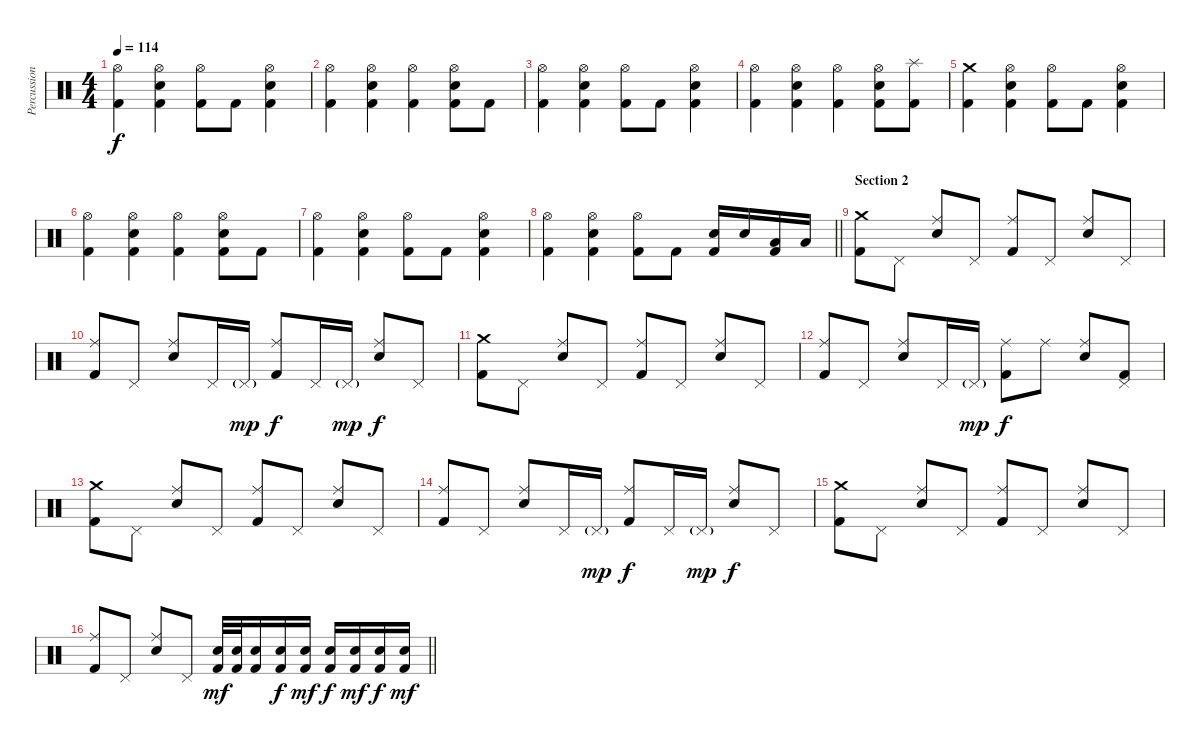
\track ("Percussion" "Percussion") {instrument percussion}
\staff {score}
\articulation defaults
\ts (4 4)
\tempo 114
\clef neutral
\ks c
("Hi-Hat (open)" "Kick (hit) 2").4{dy f} ("Snare (hit) 2" "Hi-Hat (open)" "Kick (hit) 2").4 ("Hi-Hat (open)" "Kick (hit) 2").8 "Kick (hit) 2".8 ("Snare (hit) 2" "Hi-Hat (open)" "Kick (hit) 2").4 |
("Hi-Hat (open)" "Kick (hit) 2").4 ("Snare (hit) 2" "Hi-Hat (open)" "Kick (hit) 2").4 ("Hi-Hat (open)" "Kick (hit) 2").4 ("Snare (hit) 2" "Hi-Hat (open)" "Kick (hit) 2").8 "Kick (hit) 2".8 |
("Hi-Hat (open)" "Kick (hit) 2").4 ("Snare (hit) 2" "Hi-Hat (open)" "Kick (hit) 2").4 ("Hi-Hat (open)" "Kick (hit) 2").8 "Kick (hit) 2".8 ("Snare (hit) 2" "Hi-Hat (open)" "Kick (hit) 2").4 |
("Hi-Hat (open)" "Kick (hit) 2").4 ("Snare (hit) 2" "Hi-Hat (open)" "Kick (hit) 2").4 ("Hi-Hat (open)" "Kick (hit) 2").4 ("Snare (hit) 2" "Hi-Hat (open)" "Kick (hit) 2").8 ("Splash (hit)" "Kick (hit) 2").8 |
("Crash medium (hit)" "Kick (hit) 2").4 ("Snare (hit) 2" "Hi-Hat (open)" "Kick (hit) 2").4 ("Hi-Hat (open)" "Kick (hit) 2").8 "Kick (hit) 2".8 ("Snare (hit) 2" "Hi-Hat (open)" "Kick (hit) 2").4 |
("Hi-Hat (open)" "Kick (hit) 2").4 ("Snare (hit) 2" "Hi-Hat (open)" "Kick (hit) 2").4 ("Hi-Hat (open)" "Kick (hit) 2").4 ("Snare (hit) 2" "Hi-Hat (open)" "Kick (hit) 2").8 "Kick (hit) 2".8 |
("Hi-Hat (open)" "Kick (hit) 2").4 ("Snare (hit) 2" "Hi-Hat (open)" "Kick (hit) 2").4 ("Hi-Hat (open)" "Kick (hit) 2").8 "Kick (hit) 2".8 ("Snare (hit) 2" "Hi-Hat (open)" "Kick (hit) 2").4 |
\barLineRight lightlight
("Hi-Hat (open)" "Kick (hit) 2").4 ("Snare (hit) 2" "Hi-Hat (open)" "Kick (hit) 2").4 ("Hi-Hat (open)" "Kick (hit) 2").8 "Kick (hit) 2".8 ("Snare (hit) 2" "Kick (hit) 2").16 "Snare (hit) 2".16 ("Low Tom (hit)" "Kick (hit) 2").16 "Low Tom (hit)".16 |
\section ("" "Section 2")
("Crash medium (hit)" "Kick (hit) 2").8 "Pedal Hi-Hat (hit)".8 ("Snare (hit) 2" "Ride (middle)").8 "Pedal Hi-Hat (hit)".8 ("Ride (middle)" "Kick (hit) 2").8 "Pedal Hi-Hat (hit)".8 ("Snare (hit) 2" "Ride (middle)").8 "Pedal Hi-Hat (hit)".8 |
("Ride (middle)" "Kick (hit) 2").8 "Pedal Hi-Hat (hit)".8 ("Snare (hit) 2" "Ride (middle)").8 "Pedal Hi-Hat (hit)".16 "Pedal Hi-Hat (hit)"{g}.16{dy mp} ("Ride (middle)" "Kick (hit) 2").8{dy f} "Pedal Hi-Hat (hit)".16 "Pedal Hi-Hat (hit)"{g}.16{dy mp} ("Snare (hit) 2" "Ride (middle)").8{dy f} "Pedal Hi-Hat (hit)".8 |
("Crash medium (hit)" "Kick (hit) 2").8 "Pedal Hi-Hat (hit)".8 ("Snare (hit) 2" "Ride (middle)").8 "Pedal Hi-Hat (hit)".8 ("Ride (middle)" "Kick (hit) 2").8 "Pedal Hi-Hat (hit)".8 ("Snare (hit) 2" "Ride (middle)").8 "Pedal Hi-Hat (hit)".8 |
("Ride (middle)" "Kick (hit) 2").8 "Pedal Hi-Hat (hit)".8 ("Snare (hit) 2" "Ride (middle)").8 "Pedal Hi-Hat (hit)".16 "Pedal Hi-Hat (hit)"{g}.16{dy mp} ("Ride (middle)" "Kick (hit) 2").8{dy f} "Ride (middle)".8 ("Snare (hit) 2" "Ride (middle)").8 ("Pedal Hi-Hat (hit)" "Kick (hit) 2").8 |
("Crash medium (hit)" "Kick (hit) 2").8 "Pedal Hi-Hat (hit)".8 ("Snare (hit) 2" "Ride (middle)").8 "Pedal Hi-Hat (hit)".8 ("Ride (middle)" "Kick (hit) 2").8 "Pedal Hi-Hat (hit)".8 ("Snare (hit) 2" "Ride (middle)").8 "Pedal Hi-Hat (hit)".8 |
("Ride (middle)" "Kick (hit) 2").8 "Pedal Hi-Hat (hit)".8 ("Snare (hit) 2" "Ride (middle)").8 "Pedal Hi-Hat (hit)".16 "Pedal Hi-Hat (hit)"{g}.16{dy mp} ("Ride (middle)" "Kick (hit) 2").8{dy f} "Pedal Hi-Hat (hit)".16 "Pedal Hi-Hat (hit)"{g}.16{dy mp} ("Snare (hit) 2" "Ride (middle)").8{dy f} "Pedal Hi-Hat (hit)".8 |
("Crash medium (hit)" "Kick (hit) 2").8 "Pedal Hi-Hat (hit)".8 ("Snare (hit) 2" "Ride (middle)").8 "Pedal Hi-Hat (hit)".8 ("Ride (middle)" "Kick (hit) 2").8 "Pedal Hi-Hat (hit)".8 ("Snare (hit) 2" "Ride (middle)").8 "Pedal Hi-Hat (hit)".8 |
\barLineRight lightlight
("Ride (middle)" "Kick (hit) 2").8 "Pedal Hi-Hat (hit)".8 ("Snare (hit) 2" "Ride (middle)").8 "Pedal Hi-Hat (hit)".8 ("Snare (hit) 2" "Kick (hit) 2").32{dy mf} ("Snare (hit) 2" "Kick (hit) 2").32 ("Snare (hit) 2" "Kick (hit) 2").16 ("Snare (hit) 2" "Kick (hit) 2").16{dy f} ("Snare (hit) 2" "Kick (hit) 2").16{dy mf} ("Snare (hit) 2" "Kick (hit) 2").16{dy f} ("Snare (hit) 2" "Kick (hit) 2").16{dy mf} ("Snare (hit) 2" "Kick (hit) 2").16{dy f} ("Snare (hit) 2" "Kick (hit) 2").16{dy mf}
